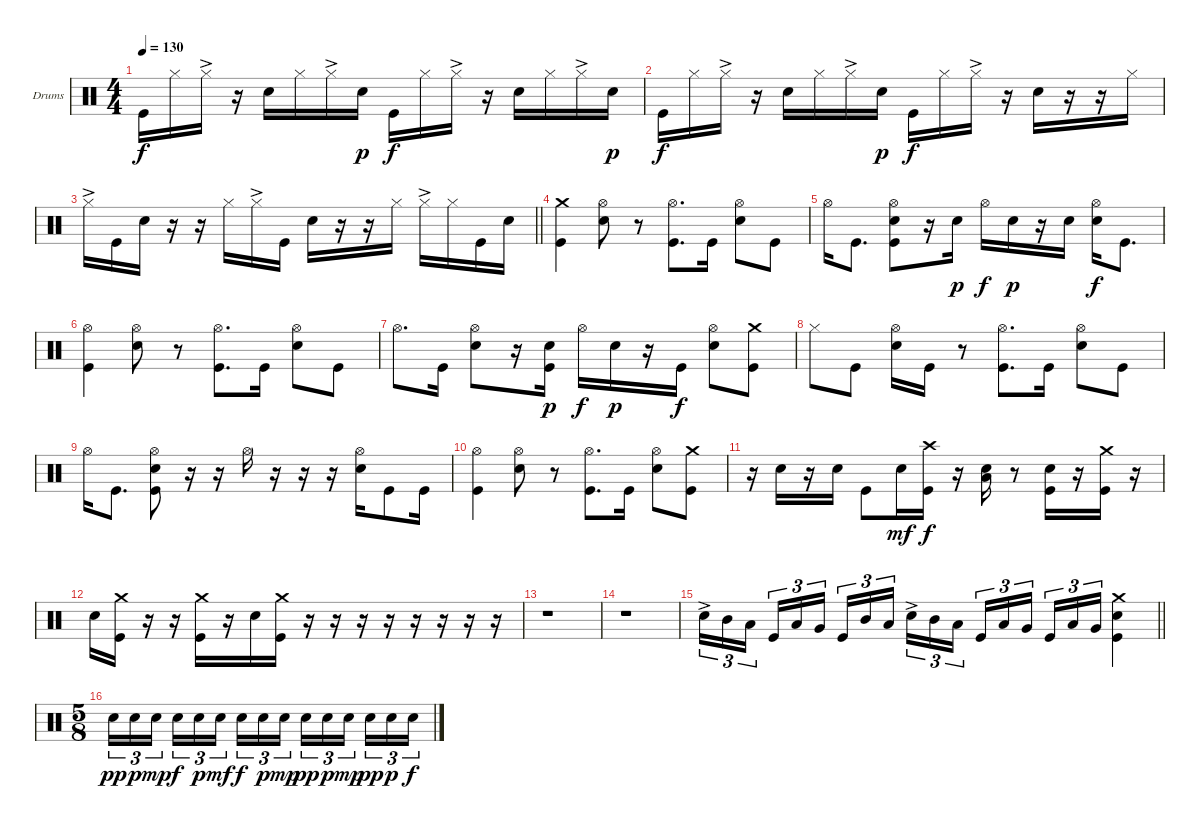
\defaultSystemsLayout 4
\bracketExtendMode groupsimilarinstruments
\firstSystemTrackNameOrientation horizontal
\otherSystemsTrackNameOrientation horizontal
\track ("Drumkit" "Drums") {instrument percussion}
\staff {score}
\articulation defaults
\ts (4 4)
\tempo 130
\clef neutral
\ks c "Kick (hit)".16{dy f} "Hi-Hat (closed)".16 "Hi-Hat (closed)"{ac}.16
r.16 "Snare (hit) 2".16 "Hi-Hat (closed)".16 "Hi-Hat (closed)"{ac}.16 "Snare (hit) 2".16{dy p} "Kick (hit)".16{dy f} "Hi-Hat (closed)".16 "Hi-Hat (closed)"{ac}.16 r.16 "Snare (hit) 2".16 "Hi-Hat (closed)".16 "Hi-Hat (closed)"{ac}.16 "Snare (hit) 2".16{dy p} |
"Kick (hit)".16{dy f} "Hi-Hat (closed)".16 "Hi-Hat (closed)"{ac}.16 r.16 "Snare (hit) 2".16 "Hi-Hat (closed)".16 "Hi-Hat (closed)"{ac}.16 "Snare (hit) 2".16{dy p} "Kick (hit)".16{dy f} "Hi-Hat (closed)".16 "Hi-Hat (closed)"{ac}.16 r.16 "Snare (hit) 2".16 r.16 r.16 "Hi-Hat (closed)".16 |
\barLineRight lightlight "Hi-Hat (closed)"{ac}.16 "Kick (hit)".16 "Snare (hit) 2".16
r.16 r.16 "Hi-Hat (closed)".16 "Hi-Hat (closed)"{ac}.16 "Kick (hit)".16 "Snare (hit) 2".16 r.16 r.16 "Hi-Hat (closed)".16 "Hi-Hat (closed)"{ac}.16 "Hi-Hat (closed)".16 "Kick (hit)".16 "Snare (hit) 2".16 |
("Kick (hit)" "Crash medium (hit)").4 ("Hi-Hat (open)" "Snare (hit) 2").8 r.8 ("Hi-Hat (open)" "Kick (hit)").8{d} "Kick (hit)".16 ("Hi-Hat (open)" "Snare (hit) 2").8 "Kick (hit)".8 |
"Hi-Hat (open)".16 "Kick (hit)".8{d} ("Hi-Hat (open)" "Snare (hit) 2" "Kick (hit)").8 r.16 "Snare (hit) 2".16{dy p} "Hi-Hat (open)".16{dy f} "Snare (hit) 2".16{dy p} r.16 "Snare (hit) 2".16 ("Hi-Hat (open)" "Snare (hit) 2").16{dy f} "Kick (hit)".8{d} |
("Kick (hit)" "Hi-Hat (open)").4 ("Hi-Hat (open)" "Snare (hit) 2").8 r.8 ("Hi-Hat (open)" "Kick (hit)").8{d} "Kick (hit)".16 ("Hi-Hat (open)" "Snare (hit) 2").8 "Kick (hit)".8 |
"Hi-Hat (open)".8{d} "Kick (hit)".16 ("Hi-Hat (open)" "Snare (hit) 2").8 r.16 ("Snare (hit) 2" "Kick (hit)").16{dy p} "Hi-Hat (open)".16{dy f} "Snare (hit) 2".16{dy p} r.16 "Kick (hit)".16{dy f} ("Hi-Hat (open)" "Snare (hit) 2").8 ("Kick (hit)" "Crash medium (hit)").8 |
"Hi-Hat (closed)".8 "Kick (hit)".8 ("Hi-Hat (open)" "Snare (hit) 2").16 "Kick (hit)".16 r.8 ("Hi-Hat (open)" "Kick (hit)").8{d} "Kick (hit)".16 ("Hi-Hat (open)" "Snare (hit) 2").8 "Kick (hit)".8 |
"Hi-Hat (open)".16 "Kick (hit)".8{d} ("Hi-Hat (open)" "Snare (hit) 2" "Kick (hit)").8 r.16 r.16 "Hi-Hat (open)".16 r.16 r.16 r.16 ("Hi-Hat (open)" "Snare (hit) 2").16 "Kick (hit)".8 "Kick (hit)".16 |
("Kick (hit)" "Hi-Hat (open)").4 ("Hi-Hat (open)" "Snare (hit) 2").8 r.8 ("Hi-Hat (open)" "Kick (hit)").8{d} "Kick (hit)".16 ("Hi-Hat (open)" "Snare (hit) 2").8 ("Kick (hit)" "Crash medium (hit)").8 |
r.16 "Snare (hit) 2".16 r.16 "Snare (hit) 2".16 "Kick (hit)".8 "Snare (hit) 2".16{dy mf} ("Kick (hit)" "Crash high (hit)").16{dy f} r.16 ("Snare (hit) 2" "Low Tom (hit)").16 r.8 ("Kick (hit)" "Snare (hit) 2").16 r.16 ("Kick (hit)" "Crash medium (hit)").16 r.16 |
"Snare (hit) 2".16 ("Kick (hit)" "Crash medium (hit)").16 r.16 r.16 ("Kick (hit)" "Crash medium (hit)").16 r.16 "Snare (hit) 2".16 ("Kick (hit)" "Crash medium (hit)").16 r.16 r.16 r.16 r.16 r.16 r.16 r.16 r.16 |
r.1 |
r.1 |
\barLineRight lightlight "Snare (hit) 2"{ac}.16{tu (3 2)} "Mid Tom (hit)".16{tu (3 2)} "Low Tom (hit)".16{tu (3 2)} "Kick (hit)".16{tu (3 2)} "Low Tom (hit)".16{tu (3 2)} "Very Low Tom (hit)".16{tu (3 2)} "Kick (hit)".16{tu (3 2)} "Mid Tom (hit)".16{tu (3 2)} "Low Tom (hit)".16{tu (3 2)} "Snare (hit) 2"{ac}.16{tu (3 2)} "Mid Tom (hit)".16{tu (3 2)} "Low Tom (hit)".16{tu (3 2)} "Kick (hit)".16{tu (3 2)} "Low Tom (hit)".16{tu (3 2)} "Very Low Tom (hit)".16{tu (3 2)} "Kick (hit)".16{tu (3 2)} "Low Tom (hit)".16{tu (3 2)} "Very Low Tom (hit)".16{tu (3 2)}
("Kick (hit)" "Snare (hit) 2" "Crash medium (hit)").4 |
\ts (5 8)
"Snare (hit) 2".16{tu (3 2) dy pp} "Snare (hit) 2".16{tu (3 2) dy p} "Snare (hit) 2".16{tu (3 2) dy mp} "Snare (hit) 2".16{tu (3 2) dy f} "Snare (hit) 2".16{tu (3 2) dy p} "Snare (hit) 2".16{tu (3 2) dy mf} "Snare (hit) 2".16{tu (3 2) dy f} "Snare (hit) 2".16{tu (3 2) dy p} "Snare (hit) 2".16{tu (3 2) dy mp} "Snare (hit) 2".16{tu (3 2) dy pp} "Snare (hit) 2".16{tu (3 2) dy p} "Snare (hit) 2".16{tu (3 2) dy mp} "Snare (hit) 2".16{tu (3 2) dy pp} "Snare (hit) 2".16{tu (3 2) dy p} "Snare (hit) 2".16{tu (3 2) dy f}
